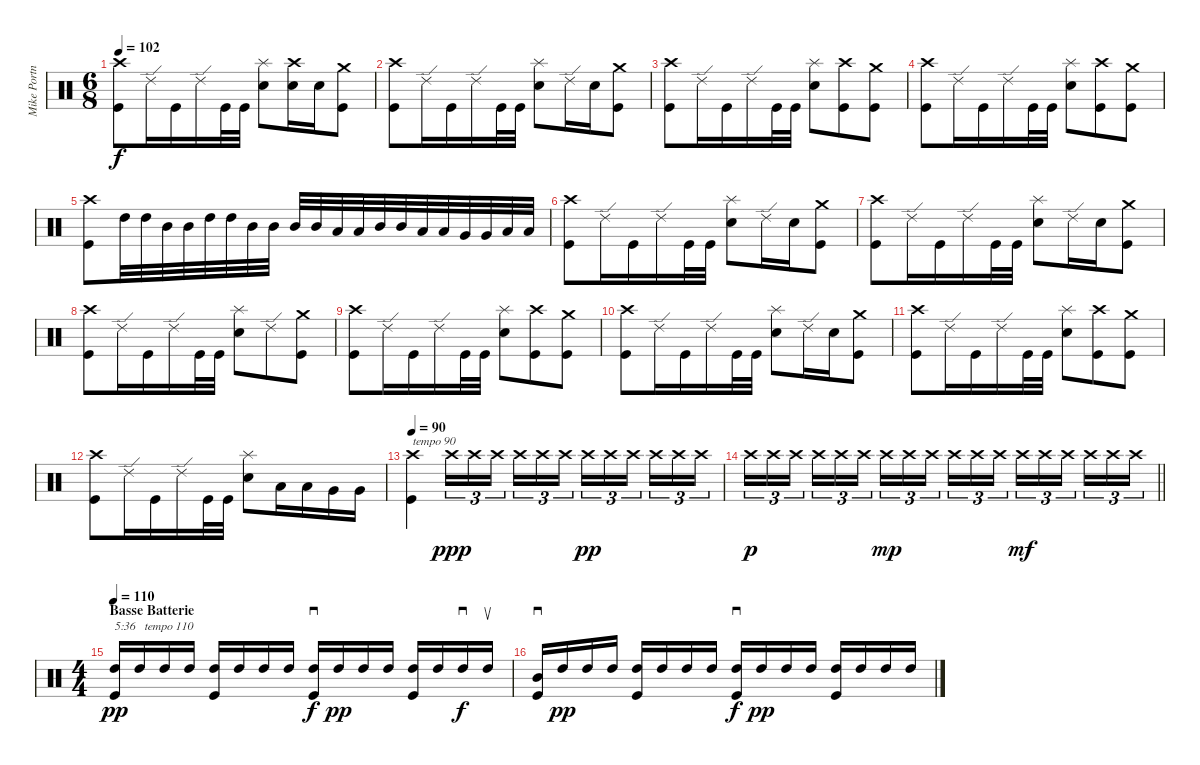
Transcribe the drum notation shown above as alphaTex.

\track ("Mike Portnoy" "Mike Portn") {instrument percussion}
\staff {score}
\articulation defaults
\ts (6 8)
\tempo 102
\clef neutral
\ks c
("Crash high (hit)" "Kick (hit)").8{dy f} "Ride (edge) 2".16 "Kick (hit)".16 "Ride (edge) 2".16 "Kick (hit)".32 "Kick (hit)".32 ("Splash (hit)" "Snare (hit) 2").8 ("Crash high (hit)" "Snare (hit) 2").16 "Snare (hit) 2".16 ("Crash medium (hit)" "Kick (hit)").8 |
("Crash high (hit)" "Kick (hit)").8 "Ride (edge) 2".16 "Kick (hit)".16 "Ride (edge) 2".16 "Kick (hit)".32 "Kick (hit)".32 ("Splash (hit)" "Snare (hit) 2").8 "Ride (edge) 2".16 "Snare (hit) 2".16 ("Crash medium (hit)" "Kick (hit)").8 |
("Crash high (hit)" "Kick (hit)").8 "Ride (edge) 2".16 "Kick (hit)".16 "Ride (edge) 2".16 "Kick (hit)".32 "Kick (hit)".32 ("Splash (hit)" "Snare (hit) 2").8 ("Crash high (hit)" "Kick (hit)").8 ("Crash medium (hit)" "Kick (hit)").8 |
("Crash high (hit)" "Kick (hit)").8 "Ride (edge) 2".16 "Kick (hit)".16 "Ride (edge) 2".16 "Kick (hit)".32 "Kick (hit)".32 ("Splash (hit)" "Snare (hit) 2").8 ("Crash high (hit)" "Kick (hit)").8 ("Crash medium (hit)" "Kick (hit)").8 |
("Crash high (hit)" "Kick (hit)").8 "High Tom (hit)".32 "High Tom (hit)".32 "Mid Tom (hit)".32 "Mid Tom (hit)".32 "High Tom (hit)".32 "High Tom (hit)".32 "Mid Tom (hit)".32 "Mid Tom (hit)".32 "Mid Tom (hit)".32 "Mid Tom (hit)".32 "Low Tom (hit)".32 "Low Tom (hit)".32 "Mid Tom (hit)".32 "Mid Tom (hit)".32 "Low Tom (hit)".32 "Low Tom (hit)".32 "Very Low Tom (hit)".32 "Very Low Tom (hit)".32 "Low Floor Tom (hit)".32 "Low Floor Tom (hit)".32 |
("Crash high (hit)" "Kick (hit)").8 "Ride (edge) 2".16 "Kick (hit)".16 "Ride (edge) 2".16 "Kick (hit)".32 "Kick (hit)".32 ("Splash (hit)" "Snare (hit) 2").8 "Ride (edge) 2".16 "Snare (hit) 2".16 ("Crash medium (hit)" "Kick (hit)").8 |
("Crash high (hit)" "Kick (hit)").8 "Ride (edge) 2".16 "Kick (hit)".16 "Ride (edge) 2".16 "Kick (hit)".32 "Kick (hit)".32 ("Splash (hit)" "Snare (hit) 2").8 "Ride (edge) 2".16 "Snare (hit) 2".16 ("Crash medium (hit)" "Kick (hit)").8 |
("Crash high (hit)" "Kick (hit)").8 "Ride (edge) 2".16 "Kick (hit)".16 "Ride (edge) 2".16 "Kick (hit)".32 "Kick (hit)".32 ("Splash (hit)" "Snare (hit) 2").8 "Ride (edge) 2".8 ("Crash medium (hit)" "Kick (hit)").8 |
("Crash high (hit)" "Kick (hit)").8 "Ride (edge) 2".16 "Kick (hit)".16 "Ride (edge) 2".16 "Kick (hit)".32 "Kick (hit)".32 ("Splash (hit)" "Snare (hit) 2").8 ("Crash high (hit)" "Kick (hit)").8 ("Crash medium (hit)" "Kick (hit)").8 |
("Crash high (hit)" "Kick (hit)").8 "Ride (edge) 2".16 "Kick (hit)".16 "Ride (edge) 2".16 "Kick (hit)".32 "Kick (hit)".32 ("Splash (hit)" "Snare (hit) 2").8 "Ride (edge) 2".16 "Snare (hit) 2".16 ("Crash medium (hit)" "Kick (hit)").8 |
("Crash high (hit)" "Kick (hit)").8 "Ride (edge) 2".16 "Kick (hit)".16 "Ride (edge) 2".16 "Kick (hit)".32 "Kick (hit)".32 ("Splash (hit)" "Snare (hit) 2").8 ("Crash high (hit)" "Kick (hit)").8 ("Crash medium (hit)" "Kick (hit)").8 |
("Crash high (hit)" "Kick (hit)").8 "Ride (edge) 2".16 "Kick (hit)".16 "Ride (edge) 2".16 "Kick (hit)".32 "Kick (hit)".32 ("Splash (hit)" "Snare (hit) 2").8 "Low Tom (hit)".16 "Low Tom (hit)".16 "Very Low Tom (hit)".16 "Very Low Tom (hit)".16 |
\tempo 90
("Crash high (hit)" "Kick (hit)").4{txt "tempo 90"} "Crash high (hit)".16{tu (3 2) dy ppp} "Crash high (hit)".16{tu (3 2)} "Crash high (hit)".16{tu (3 2)} "Crash high (hit)".16{tu (3 2)} "Crash high (hit)".16{tu (3 2)} "Crash high (hit)".16{tu (3 2)} "Crash high (hit)".16{tu (3 2) dy pp} "Crash high (hit)".16{tu (3 2)} "Crash high (hit)".16{tu (3 2)} "Crash high (hit)".16{tu (3 2)} "Crash high (hit)".16{tu (3 2)} "Crash high (hit)".16{tu (3 2)} |
\barLineRight lightlight "Crash high (hit)".16{tu (3 2) dy p} "Crash high (hit)".16{tu (3 2)} "Crash high (hit)".16{tu (3 2)} "Crash high (hit)".16{tu (3 2)} "Crash high (hit)".16{tu (3 2)} "Crash high (hit)".16{tu (3 2)} "Crash high (hit)".16{tu (3 2) dy mp} "Crash high (hit)".16{tu (3 2)} "Crash high (hit)".16{tu (3 2)} "Crash high (hit)".16{tu (3 2)} "Crash high (hit)".16{tu (3 2)} "Crash high (hit)".16{tu (3 2)} "Crash high (hit)".16{tu (3 2) dy mf} "Crash high (hit)".16{tu (3 2)} "Crash high (hit)".16{tu (3 2)} "Crash high (hit)".16{tu (3 2)} "Crash high (hit)".16{tu (3 2)} "Crash high (hit)".16{tu (3 2)}
|
\ts (4 4)
\section ("" "Basse Batterie")
\tempo 110
("High Tom (hit)" "Kick (hit)").16{txt "5:36   tempo 110" dy pp} "High Tom (hit)".16 "High Tom (hit)".16 "High Tom (hit)".16 ("High Tom (hit)" "Kick (hit)").16 "High Tom (hit)".16 "High Tom (hit)".16 "High Tom (hit)".16 ("High Tom (hit)" "Kick (hit)").16{sd dy f} "High Tom (hit)".16{dy pp} "High Tom (hit)".16 "High Tom (hit)".16 ("High Tom (hit)" "Kick (hit)").16 "High Tom (hit)".16 "High Tom (hit)".16{sd dy f} "High Tom (hit)".16{su} |
("Mid Tom (hit)" "Kick (hit)").16{sd} "High Tom (hit)".16{dy pp} "High Tom (hit)".16 "High Tom (hit)".16 ("High Tom (hit)" "Kick (hit)").16 "High Tom (hit)".16 "High Tom (hit)".16 "High Tom (hit)".16 ("High Tom (hit)" "Kick (hit)").16{sd dy f} "High Tom (hit)".16{dy pp} "High Tom (hit)".16 "High Tom (hit)".16 ("High Tom (hit)" "Kick (hit)").16 "High Tom (hit)".16 "High Tom (hit)".16 "High Tom (hit)".16
